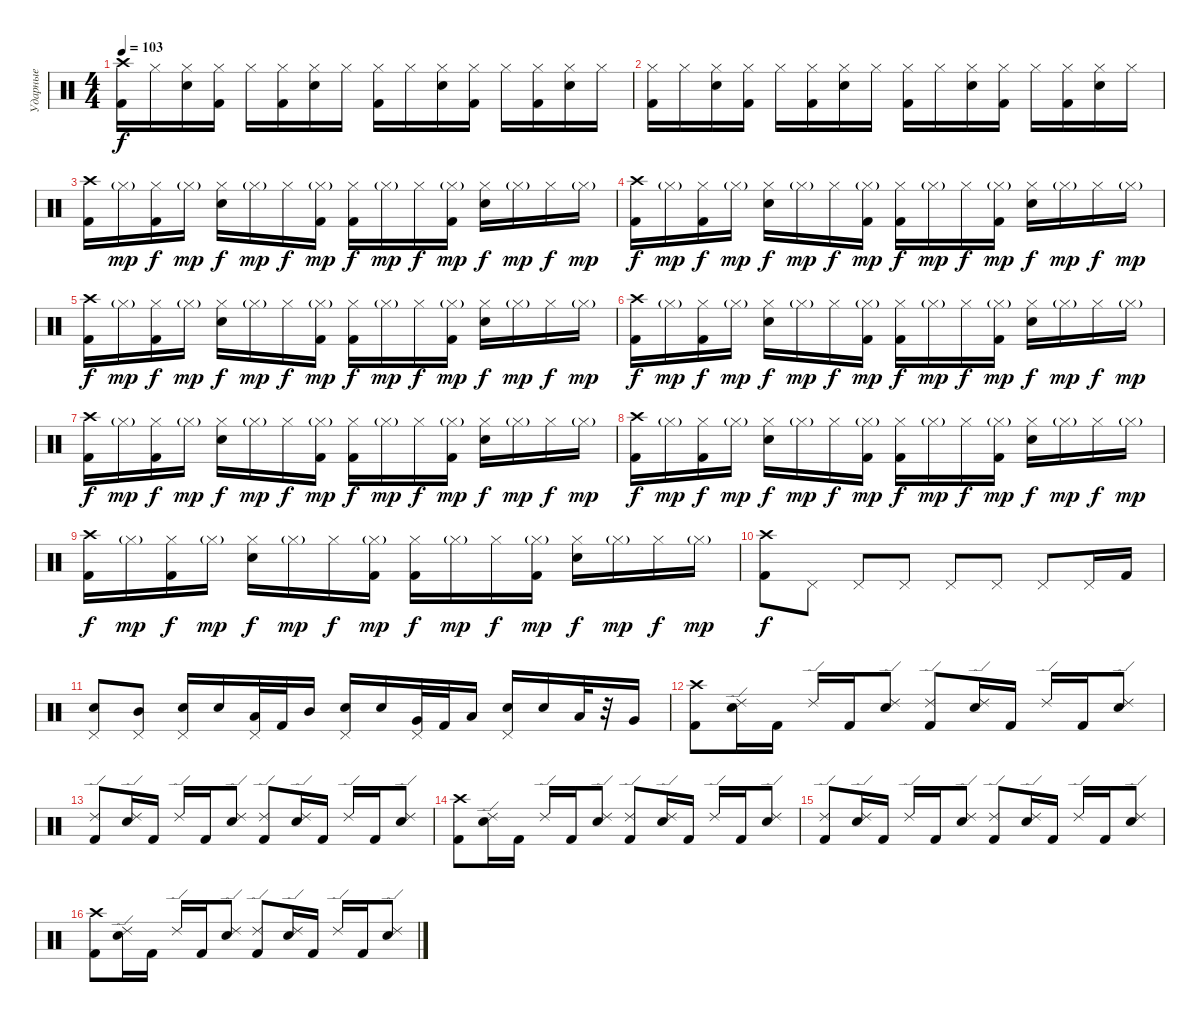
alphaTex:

\track ("Ударные" "Ударные") {instrument percussion}
\staff {score}
\articulation defaults
\ts (4 4)
\tempo 103
\clef neutral
\ks c
("Kick (hit) 2" "Crash high (hit)").16{dy f} "Hi-Hat (closed)".16 ("Electric Snare (hit)" "Hi-Hat (closed)").16 ("Kick (hit) 2" "Hi-Hat (closed)").16 "Hi-Hat (closed)".16 ("Kick (hit) 2" "Hi-Hat (closed)").16 ("Electric Snare (hit)" "Hi-Hat (closed)").16 "Hi-Hat (closed)".16 ("Kick (hit) 2" "Hi-Hat (closed)").16 "Hi-Hat (closed)".16 ("Electric Snare (hit)" "Hi-Hat (closed)").16 ("Kick (hit) 2" "Hi-Hat (closed)").16 "Hi-Hat (closed)".16 ("Kick (hit) 2" "Hi-Hat (closed)").16 ("Electric Snare (hit)" "Hi-Hat (closed)").16 "Hi-Hat (closed)".16 |
("Kick (hit) 2" "Hi-Hat (closed)").16 "Hi-Hat (closed)".16 ("Electric Snare (hit)" "Hi-Hat (closed)").16 ("Kick (hit) 2" "Hi-Hat (closed)").16 "Hi-Hat (closed)".16 ("Kick (hit) 2" "Hi-Hat (closed)").16 ("Electric Snare (hit)" "Hi-Hat (closed)").16 "Hi-Hat (closed)".16 ("Kick (hit) 2" "Hi-Hat (closed)").16 "Hi-Hat (closed)".16 ("Electric Snare (hit)" "Hi-Hat (closed)").16 ("Kick (hit) 2" "Hi-Hat (closed)").16 "Hi-Hat (closed)".16 ("Kick (hit) 2" "Hi-Hat (closed)").16 ("Electric Snare (hit)" "Hi-Hat (closed)").16 "Hi-Hat (closed)".16 |
("Kick (hit) 2" "Crash high (hit)").16 "Hi-Hat (closed)"{g}.16{dy mp} ("Kick (hit) 2" "Hi-Hat (closed)").16{dy f} "Hi-Hat (closed)"{g}.16{dy mp} ("Electric Snare (hit)" "Hi-Hat (closed)").16{dy f} "Hi-Hat (closed)"{g}.16{dy mp} "Hi-Hat (closed)".16{dy f} ("Kick (hit) 2" "Hi-Hat (closed)"{g}).16{dy mp} ("Kick (hit) 2" "Hi-Hat (closed)").16{dy f} "Hi-Hat (closed)"{g}.16{dy mp} "Hi-Hat (closed)".16{dy f} ("Kick (hit) 2" "Hi-Hat (closed)"{g}).16{dy mp} ("Electric Snare (hit)" "Hi-Hat (closed)").16{dy f} "Hi-Hat (closed)"{g}.16{dy mp} "Hi-Hat (closed)".16{dy f} "Hi-Hat (closed)"{g}.16{dy mp} |
("Kick (hit) 2" "Crash high (hit)").16{dy f} "Hi-Hat (closed)"{g}.16{dy mp} ("Kick (hit) 2" "Hi-Hat (closed)").16{dy f} "Hi-Hat (closed)"{g}.16{dy mp} ("Electric Snare (hit)" "Hi-Hat (closed)").16{dy f} "Hi-Hat (closed)"{g}.16{dy mp} "Hi-Hat (closed)".16{dy f} ("Kick (hit) 2" "Hi-Hat (closed)"{g}).16{dy mp} ("Kick (hit) 2" "Hi-Hat (closed)").16{dy f} "Hi-Hat (closed)"{g}.16{dy mp} "Hi-Hat (closed)".16{dy f} ("Kick (hit) 2" "Hi-Hat (closed)"{g}).16{dy mp} ("Electric Snare (hit)" "Hi-Hat (closed)").16{dy f} "Hi-Hat (closed)"{g}.16{dy mp} "Hi-Hat (closed)".16{dy f} "Hi-Hat (closed)"{g}.16{dy mp} |
("Kick (hit) 2" "Crash high (hit)").16{dy f} "Hi-Hat (closed)"{g}.16{dy mp} ("Kick (hit) 2" "Hi-Hat (closed)").16{dy f} "Hi-Hat (closed)"{g}.16{dy mp} ("Electric Snare (hit)" "Hi-Hat (closed)").16{dy f} "Hi-Hat (closed)"{g}.16{dy mp} "Hi-Hat (closed)".16{dy f} ("Kick (hit) 2" "Hi-Hat (closed)"{g}).16{dy mp} ("Kick (hit) 2" "Hi-Hat (closed)").16{dy f} "Hi-Hat (closed)"{g}.16{dy mp} "Hi-Hat (closed)".16{dy f} ("Kick (hit) 2" "Hi-Hat (closed)"{g}).16{dy mp} ("Electric Snare (hit)" "Hi-Hat (closed)").16{dy f} "Hi-Hat (closed)"{g}.16{dy mp} "Hi-Hat (closed)".16{dy f} "Hi-Hat (closed)"{g}.16{dy mp} |
("Kick (hit) 2" "Crash high (hit)").16{dy f} "Hi-Hat (closed)"{g}.16{dy mp} ("Kick (hit) 2" "Hi-Hat (closed)").16{dy f} "Hi-Hat (closed)"{g}.16{dy mp} ("Electric Snare (hit)" "Hi-Hat (closed)").16{dy f} "Hi-Hat (closed)"{g}.16{dy mp} "Hi-Hat (closed)".16{dy f} ("Kick (hit) 2" "Hi-Hat (closed)"{g}).16{dy mp} ("Kick (hit) 2" "Hi-Hat (closed)").16{dy f} "Hi-Hat (closed)"{g}.16{dy mp} "Hi-Hat (closed)".16{dy f} ("Kick (hit) 2" "Hi-Hat (closed)"{g}).16{dy mp} ("Electric Snare (hit)" "Hi-Hat (closed)").16{dy f} "Hi-Hat (closed)"{g}.16{dy mp} "Hi-Hat (closed)".16{dy f} "Hi-Hat (closed)"{g}.16{dy mp} |
("Kick (hit) 2" "Crash high (hit)").16{dy f} "Hi-Hat (closed)"{g}.16{dy mp} ("Kick (hit) 2" "Hi-Hat (closed)").16{dy f} "Hi-Hat (closed)"{g}.16{dy mp} ("Electric Snare (hit)" "Hi-Hat (closed)").16{dy f} "Hi-Hat (closed)"{g}.16{dy mp} "Hi-Hat (closed)".16{dy f} ("Kick (hit) 2" "Hi-Hat (closed)"{g}).16{dy mp} ("Kick (hit) 2" "Hi-Hat (closed)").16{dy f} "Hi-Hat (closed)"{g}.16{dy mp} "Hi-Hat (closed)".16{dy f} ("Kick (hit) 2" "Hi-Hat (closed)"{g}).16{dy mp} ("Electric Snare (hit)" "Hi-Hat (closed)").16{dy f} "Hi-Hat (closed)"{g}.16{dy mp} "Hi-Hat (closed)".16{dy f} "Hi-Hat (closed)"{g}.16{dy mp} |
("Kick (hit) 2" "Crash high (hit)").16{dy f} "Hi-Hat (closed)"{g}.16{dy mp} ("Kick (hit) 2" "Hi-Hat (closed)").16{dy f} "Hi-Hat (closed)"{g}.16{dy mp} ("Electric Snare (hit)" "Hi-Hat (closed)").16{dy f} "Hi-Hat (closed)"{g}.16{dy mp} "Hi-Hat (closed)".16{dy f} ("Kick (hit) 2" "Hi-Hat (closed)"{g}).16{dy mp} ("Kick (hit) 2" "Hi-Hat (closed)").16{dy f} "Hi-Hat (closed)"{g}.16{dy mp} "Hi-Hat (closed)".16{dy f} ("Kick (hit) 2" "Hi-Hat (closed)"{g}).16{dy mp} ("Electric Snare (hit)" "Hi-Hat (closed)").16{dy f} "Hi-Hat (closed)"{g}.16{dy mp} "Hi-Hat (closed)".16{dy f} "Hi-Hat (closed)"{g}.16{dy mp} |
("Kick (hit) 2" "Crash high (hit)").16{dy f} "Hi-Hat (closed)"{g}.16{dy mp} ("Kick (hit) 2" "Hi-Hat (closed)").16{dy f} "Hi-Hat (closed)"{g}.16{dy mp} ("Electric Snare (hit)" "Hi-Hat (closed)").16{dy f} "Hi-Hat (closed)"{g}.16{dy mp} "Hi-Hat (closed)".16{dy f} ("Kick (hit) 2" "Hi-Hat (closed)"{g}).16{dy mp} ("Kick (hit) 2" "Hi-Hat (closed)").16{dy f} "Hi-Hat (closed)"{g}.16{dy mp} "Hi-Hat (closed)".16{dy f} ("Kick (hit) 2" "Hi-Hat (closed)"{g}).16{dy mp} ("Electric Snare (hit)" "Hi-Hat (closed)").16{dy f} "Hi-Hat (closed)"{g}.16{dy mp} "Hi-Hat (closed)".16{dy f} "Hi-Hat (closed)"{g}.16{dy mp} |
("Kick (hit) 2" "Crash high (hit)").8{dy f} "Pedal Hi-Hat (hit)".8 "Pedal Hi-Hat (hit)".8 "Pedal Hi-Hat (hit)".8 "Pedal Hi-Hat (hit)".8 "Pedal Hi-Hat (hit)".8 "Pedal Hi-Hat (hit)".8 "Pedal Hi-Hat (hit)".16 "Kick (hit) 2".16 |
("Pedal Hi-Hat (hit)" "Electric Snare (hit)").8 ("Pedal Hi-Hat (hit)" "Mid Tom (hit)").8 ("Pedal Hi-Hat (hit)" "Electric Snare (hit)").16 "Electric Snare (hit)".16 ("Pedal Hi-Hat (hit)" "Low Tom (hit)").32 "Kick (hit) 2".32 "Mid Tom (hit)".16 ("Pedal Hi-Hat (hit)" "Electric Snare (hit)").16 "Electric Snare (hit)".16 ("Pedal Hi-Hat (hit)" "Very Low Tom (hit)").32 "Kick (hit) 2".32 "Low Tom (hit)".16 ("Pedal Hi-Hat (hit)" "Electric Snare (hit)").16 "Electric Snare (hit)".16 "Low Tom (hit)".32 r.32 "Very Low Tom (hit)".16 |
("Kick (hit) 2" "Crash high (hit)").8 ("Electric Snare (hit)" "Ride (edge) 2").16 "Kick (hit) 2".16 "Ride (edge) 2".16 "Kick (hit) 2".16 ("Electric Snare (hit)" "Ride (edge) 2").8 ("Kick (hit) 2" "Ride (edge) 2").8 ("Electric Snare (hit)" "Ride (edge) 2").16 "Kick (hit) 2".16 "Ride (edge) 2".16 "Kick (hit) 2".16 ("Electric Snare (hit)" "Ride (edge) 2").8 |
("Kick (hit) 2" "Ride (edge) 2").8 ("Electric Snare (hit)" "Ride (edge) 2").16 "Kick (hit) 2".16 "Ride (edge) 2".16 "Kick (hit) 2".16 ("Electric Snare (hit)" "Ride (edge) 2").8 ("Kick (hit) 2" "Ride (edge) 2").8 ("Electric Snare (hit)" "Ride (edge) 2").16 "Kick (hit) 2".16 "Ride (edge) 2".16 "Kick (hit) 2".16 ("Electric Snare (hit)" "Ride (edge) 2").8 |
("Kick (hit) 2" "Crash high (hit)").8 ("Electric Snare (hit)" "Ride (edge) 2").16 "Kick (hit) 2".16 "Ride (edge) 2".16 "Kick (hit) 2".16 ("Electric Snare (hit)" "Ride (edge) 2").8 ("Kick (hit) 2" "Ride (edge) 2").8 ("Electric Snare (hit)" "Ride (edge) 2").16 "Kick (hit) 2".16 "Ride (edge) 2".16 "Kick (hit) 2".16 ("Electric Snare (hit)" "Ride (edge) 2").8 |
("Kick (hit) 2" "Ride (edge) 2").8 ("Electric Snare (hit)" "Ride (edge) 2").16 "Kick (hit) 2".16 "Ride (edge) 2".16 "Kick (hit) 2".16 ("Electric Snare (hit)" "Ride (edge) 2").8 ("Kick (hit) 2" "Ride (edge) 2").8 ("Electric Snare (hit)" "Ride (edge) 2").16 "Kick (hit) 2".16 "Ride (edge) 2".16 "Kick (hit) 2".16 ("Electric Snare (hit)" "Ride (edge) 2").8 |
("Kick (hit) 2" "Crash high (hit)").8 ("Electric Snare (hit)" "Ride (edge) 2").16 "Kick (hit) 2".16 "Ride (edge) 2".16 "Kick (hit) 2".16 ("Electric Snare (hit)" "Ride (edge) 2").8 ("Kick (hit) 2" "Ride (edge) 2").8 ("Electric Snare (hit)" "Ride (edge) 2").16 "Kick (hit) 2".16 "Ride (edge) 2".16 "Kick (hit) 2".16 ("Electric Snare (hit)" "Ride (edge) 2").8
